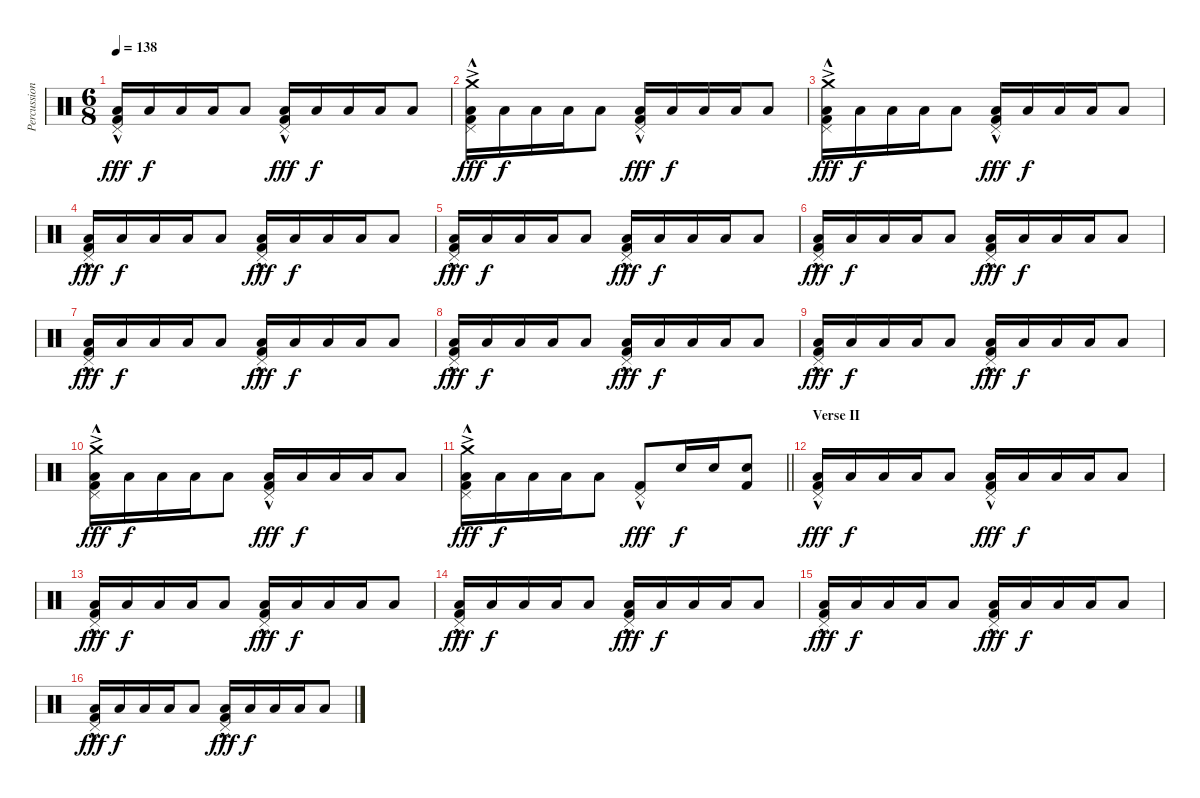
\track ("Percussion" "Percussion") {instrument percussion}
\staff {score}
\articulation defaults
\ts (6 8)
\tempo 138
\clef neutral
\ks c
("Pedal Hi-Hat (hit)"{hac} "Low Floor Tom (hit)" "Kick (hit) 2").16{dy fff} "Low Floor Tom (hit)".16{dy f} "Low Floor Tom (hit)".16 "Low Floor Tom (hit)".16 "Low Floor Tom (hit)".8 ("Pedal Hi-Hat (hit)"{hac} "Low Floor Tom (hit)" "Kick (hit) 2").16{dy fff} "Low Floor Tom (hit)".16{dy f} "Low Floor Tom (hit)".16 "Low Floor Tom (hit)".16 "Low Floor Tom (hit)".8 |
("Crash medium (hit)"{ac} "Pedal Hi-Hat (hit)"{hac} "Low Floor Tom (hit)" "Kick (hit) 2").16{dy fff} "Low Floor Tom (hit)".16{dy f} "Low Floor Tom (hit)".16 "Low Floor Tom (hit)".16 "Low Floor Tom (hit)".8 ("Pedal Hi-Hat (hit)"{hac} "Low Floor Tom (hit)" "Kick (hit) 2").16{dy fff} "Low Floor Tom (hit)".16{dy f} "Low Floor Tom (hit)".16 "Low Floor Tom (hit)".16 "Low Floor Tom (hit)".8 |
("Crash medium (hit)"{ac} "Pedal Hi-Hat (hit)"{hac} "Low Floor Tom (hit)" "Kick (hit) 2").16{dy fff} "Low Floor Tom (hit)".16{dy f} "Low Floor Tom (hit)".16 "Low Floor Tom (hit)".16 "Low Floor Tom (hit)".8 ("Pedal Hi-Hat (hit)"{hac} "Low Floor Tom (hit)" "Kick (hit) 2").16{dy fff} "Low Floor Tom (hit)".16{dy f} "Low Floor Tom (hit)".16 "Low Floor Tom (hit)".16 "Low Floor Tom (hit)".8 |
("Pedal Hi-Hat (hit)"{hac} "Low Floor Tom (hit)" "Kick (hit) 2").16{dy fff} "Low Floor Tom (hit)".16{dy f} "Low Floor Tom (hit)".16 "Low Floor Tom (hit)".16 "Low Floor Tom (hit)".8 ("Pedal Hi-Hat (hit)"{hac} "Low Floor Tom (hit)" "Kick (hit) 2").16{dy fff} "Low Floor Tom (hit)".16{dy f} "Low Floor Tom (hit)".16 "Low Floor Tom (hit)".16 "Low Floor Tom (hit)".8 |
("Pedal Hi-Hat (hit)"{hac} "Low Floor Tom (hit)" "Kick (hit) 2").16{dy fff} "Low Floor Tom (hit)".16{dy f} "Low Floor Tom (hit)".16 "Low Floor Tom (hit)".16 "Low Floor Tom (hit)".8 ("Pedal Hi-Hat (hit)"{hac} "Low Floor Tom (hit)" "Kick (hit) 2").16{dy fff} "Low Floor Tom (hit)".16{dy f} "Low Floor Tom (hit)".16 "Low Floor Tom (hit)".16 "Low Floor Tom (hit)".8 |
("Pedal Hi-Hat (hit)"{hac} "Low Floor Tom (hit)" "Kick (hit) 2").16{dy fff} "Low Floor Tom (hit)".16{dy f} "Low Floor Tom (hit)".16 "Low Floor Tom (hit)".16 "Low Floor Tom (hit)".8 ("Pedal Hi-Hat (hit)"{hac} "Low Floor Tom (hit)" "Kick (hit) 2").16{dy fff} "Low Floor Tom (hit)".16{dy f} "Low Floor Tom (hit)".16 "Low Floor Tom (hit)".16 "Low Floor Tom (hit)".8 |
("Pedal Hi-Hat (hit)"{hac} "Low Floor Tom (hit)" "Kick (hit) 2").16{dy fff} "Low Floor Tom (hit)".16{dy f} "Low Floor Tom (hit)".16 "Low Floor Tom (hit)".16 "Low Floor Tom (hit)".8 ("Pedal Hi-Hat (hit)"{hac} "Low Floor Tom (hit)" "Kick (hit) 2").16{dy fff} "Low Floor Tom (hit)".16{dy f} "Low Floor Tom (hit)".16 "Low Floor Tom (hit)".16 "Low Floor Tom (hit)".8 |
("Pedal Hi-Hat (hit)"{hac} "Low Floor Tom (hit)" "Kick (hit) 2").16{dy fff} "Low Floor Tom (hit)".16{dy f} "Low Floor Tom (hit)".16 "Low Floor Tom (hit)".16 "Low Floor Tom (hit)".8 ("Pedal Hi-Hat (hit)"{hac} "Low Floor Tom (hit)" "Kick (hit) 2").16{dy fff} "Low Floor Tom (hit)".16{dy f} "Low Floor Tom (hit)".16 "Low Floor Tom (hit)".16 "Low Floor Tom (hit)".8 |
("Pedal Hi-Hat (hit)"{hac} "Low Floor Tom (hit)" "Kick (hit) 2").16{dy fff} "Low Floor Tom (hit)".16{dy f} "Low Floor Tom (hit)".16 "Low Floor Tom (hit)".16 "Low Floor Tom (hit)".8 ("Pedal Hi-Hat (hit)"{hac} "Low Floor Tom (hit)" "Kick (hit) 2").16{dy fff} "Low Floor Tom (hit)".16{dy f} "Low Floor Tom (hit)".16 "Low Floor Tom (hit)".16 "Low Floor Tom (hit)".8 |
("Crash medium (hit)"{ac} "Pedal Hi-Hat (hit)"{hac} "Low Floor Tom (hit)" "Kick (hit) 2").16{dy fff} "Low Floor Tom (hit)".16{dy f} "Low Floor Tom (hit)".16 "Low Floor Tom (hit)".16 "Low Floor Tom (hit)".8 ("Pedal Hi-Hat (hit)"{hac} "Low Floor Tom (hit)" "Kick (hit) 2").16{dy fff} "Low Floor Tom (hit)".16{dy f} "Low Floor Tom (hit)".16 "Low Floor Tom (hit)".16 "Low Floor Tom (hit)".8 |
\barLineRight lightlight
("Crash medium (hit)"{ac} "Pedal Hi-Hat (hit)"{hac} "Low Floor Tom (hit)" "Kick (hit) 2").16{dy fff} "Low Floor Tom (hit)".16{dy f} "Low Floor Tom (hit)".16 "Low Floor Tom (hit)".16 "Low Floor Tom (hit)".8 ("Pedal Hi-Hat (hit)"{hac} "Kick (hit) 2").8{dy fff} "Electric Snare (hit)".16{dy f} "Electric Snare (hit)".16 ("Electric Snare (hit)" "Kick (hit) 2").8 |
\section ("" "Verse II")
("Pedal Hi-Hat (hit)"{hac} "Low Floor Tom (hit)" "Kick (hit) 2").16{dy fff} "Low Floor Tom (hit)".16{dy f} "Low Floor Tom (hit)".16 "Low Floor Tom (hit)".16 "Low Floor Tom (hit)".8 ("Pedal Hi-Hat (hit)"{hac} "Low Floor Tom (hit)" "Kick (hit) 2").16{dy fff} "Low Floor Tom (hit)".16{dy f} "Low Floor Tom (hit)".16 "Low Floor Tom (hit)".16 "Low Floor Tom (hit)".8 |
("Pedal Hi-Hat (hit)"{hac} "Low Floor Tom (hit)" "Kick (hit) 2").16{dy fff} "Low Floor Tom (hit)".16{dy f} "Low Floor Tom (hit)".16 "Low Floor Tom (hit)".16 "Low Floor Tom (hit)".8 ("Pedal Hi-Hat (hit)"{hac} "Low Floor Tom (hit)" "Kick (hit) 2").16{dy fff} "Low Floor Tom (hit)".16{dy f} "Low Floor Tom (hit)".16 "Low Floor Tom (hit)".16 "Low Floor Tom (hit)".8 |
("Pedal Hi-Hat (hit)"{hac} "Low Floor Tom (hit)" "Kick (hit) 2").16{dy fff} "Low Floor Tom (hit)".16{dy f} "Low Floor Tom (hit)".16 "Low Floor Tom (hit)".16 "Low Floor Tom (hit)".8 ("Pedal Hi-Hat (hit)"{hac} "Low Floor Tom (hit)" "Kick (hit) 2").16{dy fff} "Low Floor Tom (hit)".16{dy f} "Low Floor Tom (hit)".16 "Low Floor Tom (hit)".16 "Low Floor Tom (hit)".8 |
("Pedal Hi-Hat (hit)"{hac} "Low Floor Tom (hit)" "Kick (hit) 2").16{dy fff} "Low Floor Tom (hit)".16{dy f} "Low Floor Tom (hit)".16 "Low Floor Tom (hit)".16 "Low Floor Tom (hit)".8 ("Pedal Hi-Hat (hit)"{hac} "Low Floor Tom (hit)" "Kick (hit) 2").16{dy fff} "Low Floor Tom (hit)".16{dy f} "Low Floor Tom (hit)".16 "Low Floor Tom (hit)".16 "Low Floor Tom (hit)".8 |
("Pedal Hi-Hat (hit)"{hac} "Low Floor Tom (hit)" "Kick (hit) 2").16{dy fff} "Low Floor Tom (hit)".16{dy f} "Low Floor Tom (hit)".16 "Low Floor Tom (hit)".16 "Low Floor Tom (hit)".8 ("Pedal Hi-Hat (hit)"{hac} "Low Floor Tom (hit)" "Kick (hit) 2").16{dy fff} "Low Floor Tom (hit)".16{dy f} "Low Floor Tom (hit)".16 "Low Floor Tom (hit)".16 "Low Floor Tom (hit)".8
